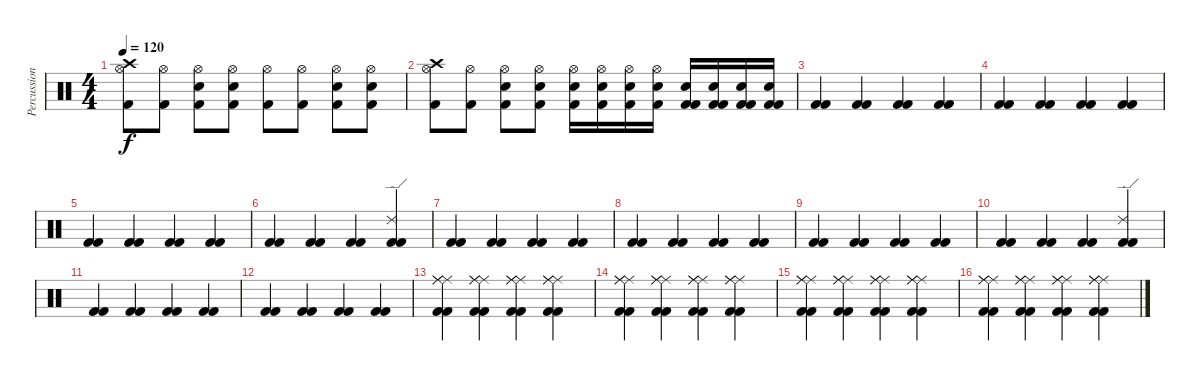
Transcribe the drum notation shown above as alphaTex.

\track ("Percussioni" "Percussion") {instrument percussion}
\staff {score}
\articulation defaults
\ts (4 4)
\tempo 120
\clef neutral
\ks c
("Hi-Hat (open)" "Kick (hit) 2" "Crash high (hit)").8{dy f} ("Hi-Hat (open)" "Kick (hit) 2").8 ("Hi-Hat (open)" "Kick (hit) 2" "Electric Snare (hit)").8 ("Hi-Hat (open)" "Kick (hit) 2" "Electric Snare (hit)").8 ("Hi-Hat (open)" "Kick (hit) 2").8 ("Hi-Hat (open)" "Kick (hit) 2").8 ("Hi-Hat (open)" "Kick (hit) 2" "Electric Snare (hit)").8 ("Hi-Hat (open)" "Kick (hit) 2" "Electric Snare (hit)").8 |
("Hi-Hat (open)" "Kick (hit) 2" "Crash high (hit)").8 ("Hi-Hat (open)" "Kick (hit) 2").8 ("Hi-Hat (open)" "Kick (hit) 2" "Electric Snare (hit)").8 ("Hi-Hat (open)" "Kick (hit) 2" "Electric Snare (hit)").8 ("Hi-Hat (open)" "Kick (hit) 2" "Electric Snare (hit)").16 ("Hi-Hat (open)" "Kick (hit) 2" "Electric Snare (hit)").16 ("Hi-Hat (open)" "Kick (hit) 2" "Electric Snare (hit)").16 ("Hi-Hat (open)" "Kick (hit) 2" "Electric Snare (hit)").16 ("Kick (hit) 2" "Kick (hit) 2" "Electric Snare (hit)").16 ("Kick (hit) 2" "Kick (hit) 2" "Electric Snare (hit)").16 ("Kick (hit) 2" "Kick (hit) 2" "Electric Snare (hit)").16 ("Kick (hit) 2" "Kick (hit) 2" "Electric Snare (hit)").16 |
("Kick (hit) 2" "Kick (hit) 2").4 ("Kick (hit) 2" "Kick (hit) 2").4 ("Kick (hit) 2" "Kick (hit) 2").4 ("Kick (hit) 2" "Kick (hit) 2").4 |
("Kick (hit) 2" "Kick (hit) 2").4 ("Kick (hit) 2" "Kick (hit) 2").4 ("Kick (hit) 2" "Kick (hit) 2").4 ("Kick (hit) 2" "Kick (hit) 2").4 |
("Kick (hit) 2" "Kick (hit) 2").4 ("Kick (hit) 2" "Kick (hit) 2").4 ("Kick (hit) 2" "Kick (hit) 2").4 ("Kick (hit) 2" "Kick (hit) 2").4 |
("Kick (hit) 2" "Kick (hit) 2").4 ("Kick (hit) 2" "Kick (hit) 2").4 ("Kick (hit) 2" "Kick (hit) 2").4 ("Kick (hit) 2" "Kick (hit) 2" "Ride (edge) 2").4 |
("Kick (hit) 2" "Kick (hit) 2").4 ("Kick (hit) 2" "Kick (hit) 2").4 ("Kick (hit) 2" "Kick (hit) 2").4 ("Kick (hit) 2" "Kick (hit) 2").4 |
("Kick (hit) 2" "Kick (hit) 2").4 ("Kick (hit) 2" "Kick (hit) 2").4 ("Kick (hit) 2" "Kick (hit) 2").4 ("Kick (hit) 2" "Kick (hit) 2").4 |
("Kick (hit) 2" "Kick (hit) 2").4 ("Kick (hit) 2" "Kick (hit) 2").4 ("Kick (hit) 2" "Kick (hit) 2").4 ("Kick (hit) 2" "Kick (hit) 2").4 |
("Kick (hit) 2" "Kick (hit) 2").4 ("Kick (hit) 2" "Kick (hit) 2").4 ("Kick (hit) 2" "Kick (hit) 2").4 ("Kick (hit) 2" "Kick (hit) 2" "Ride (edge) 2").4 |
("Kick (hit) 2" "Kick (hit) 2").4 ("Kick (hit) 2" "Kick (hit) 2").4 ("Kick (hit) 2" "Kick (hit) 2").4 ("Kick (hit) 2" "Kick (hit) 2").4 |
("Kick (hit) 2" "Kick (hit) 2").4 ("Kick (hit) 2" "Kick (hit) 2").4 ("Kick (hit) 2" "Kick (hit) 2").4 ("Kick (hit) 2" "Kick (hit) 2").4 |
("Kick (hit) 2" "Kick (hit) 2" "Ride (middle)" "Ride (middle)" "Ride (middle)").4 ("Kick (hit) 2" "Kick (hit) 2" "Ride (middle)" "Ride (middle)" "Ride (middle)").4 ("Kick (hit) 2" "Kick (hit) 2" "Ride (middle)" "Ride (middle)" "Ride (middle)").4 ("Kick (hit) 2" "Kick (hit) 2" "Ride (middle)" "Ride (middle)" "Ride (middle)").4 |
("Kick (hit) 2" "Kick (hit) 2" "Ride (middle)" "Ride (middle)" "Ride (middle)").4 ("Kick (hit) 2" "Kick (hit) 2" "Ride (middle)" "Ride (middle)" "Ride (middle)").4 ("Kick (hit) 2" "Kick (hit) 2" "Ride (middle)" "Ride (middle)" "Ride (middle)").4 ("Kick (hit) 2" "Kick (hit) 2" "Ride (middle)" "Ride (middle)" "Ride (middle)").4 |
("Kick (hit) 2" "Kick (hit) 2" "Ride (middle)" "Ride (middle)" "Ride (middle)").4 ("Kick (hit) 2" "Kick (hit) 2" "Ride (middle)" "Ride (middle)" "Ride (middle)").4 ("Kick (hit) 2" "Kick (hit) 2" "Ride (middle)" "Ride (middle)" "Ride (middle)").4 ("Kick (hit) 2" "Kick (hit) 2" "Ride (middle)" "Ride (middle)" "Ride (middle)").4 |
("Kick (hit) 2" "Kick (hit) 2" "Ride (middle)" "Ride (middle)" "Ride (middle)").4 ("Kick (hit) 2" "Kick (hit) 2" "Ride (middle)" "Ride (middle)" "Ride (middle)").4 ("Kick (hit) 2" "Kick (hit) 2" "Ride (middle)" "Ride (middle)" "Ride (middle)").4 ("Kick (hit) 2" "Kick (hit) 2" "Ride (middle)" "Ride (middle)" "Ride (middle)").4
